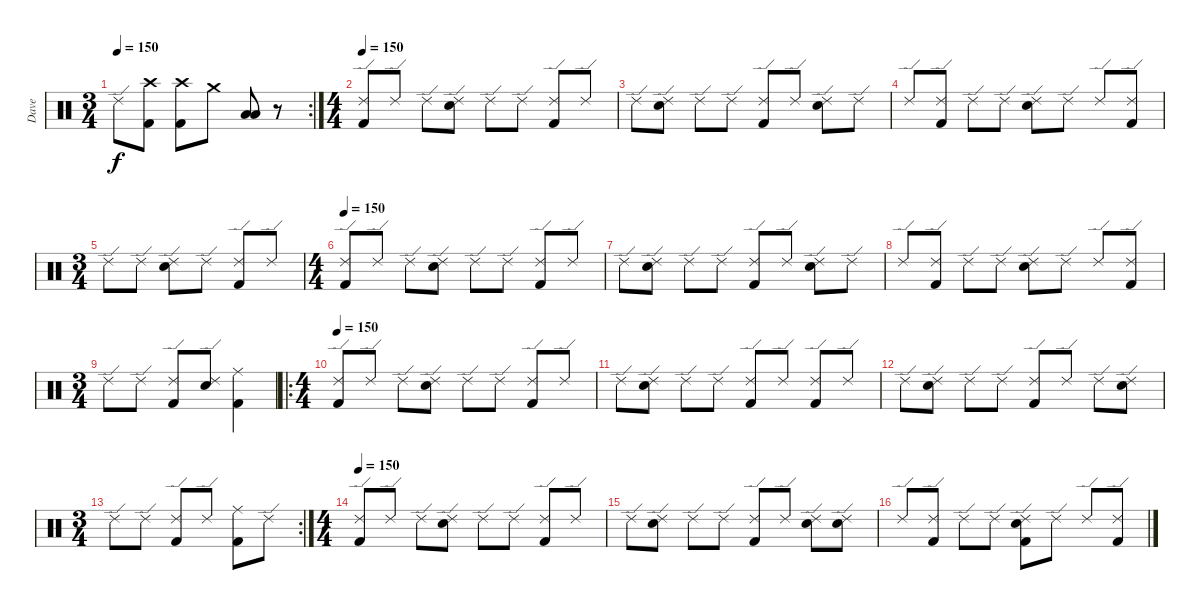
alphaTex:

\track ("Dave" "Dave") {instrument percussion}
\staff {score}
\articulation defaults
\rc 2
\ts (3 4)
\tempo 150
\clef neutral
\ks c "Ride (edge) 2".8{dy f}
("Crash high (hit)" "Kick (hit) 2").8 ("Crash high (hit)" "Kick (hit) 2").8 "Crash medium (hit)".8 ("Low Tom (hit)" "Low Floor Tom (hit)").8 r.8 |
\ts (4 4)
\tempo 150
("Ride (edge) 2" "Kick (hit) 2").8 "Ride (edge) 2".8 "Ride (edge) 2".8 ("Ride (edge) 2" "Electric Snare (hit)").8 "Ride (edge) 2".8 "Ride (edge) 2".8 ("Ride (edge) 2" "Kick (hit) 2").8 "Ride (edge) 2".8 |
"Ride (edge) 2".8 ("Ride (edge) 2" "Electric Snare (hit)").8 "Ride (edge) 2".8 "Ride (edge) 2".8 ("Ride (edge) 2" "Kick (hit) 2").8 "Ride (edge) 2".8 ("Ride (edge) 2" "Electric Snare (hit)").8 "Ride (edge) 2".8 |
"Ride (edge) 2".8 ("Ride (edge) 2" "Kick (hit) 2").8 "Ride (edge) 2".8 "Ride (edge) 2".8 ("Ride (edge) 2" "Electric Snare (hit)").8 "Ride (edge) 2".8 "Ride (edge) 2".8 ("Ride (edge) 2" "Kick (hit) 2").8 |
\ts (3 4)
"Ride (edge) 2".8 "Ride (edge) 2".8 ("Ride (edge) 2" "Electric Snare (hit)").8 "Ride (edge) 2".8 ("Ride (edge) 2" "Kick (hit) 2").8 "Ride (edge) 2".8 |
\ts (4 4)
\tempo 150
("Ride (edge) 2" "Kick (hit) 2").8 "Ride (edge) 2".8 "Ride (edge) 2".8 ("Ride (edge) 2" "Electric Snare (hit)").8 "Ride (edge) 2".8 "Ride (edge) 2".8 ("Ride (edge) 2" "Kick (hit) 2").8 "Ride (edge) 2".8 |
"Ride (edge) 2".8 ("Ride (edge) 2" "Electric Snare (hit)").8 "Ride (edge) 2".8 "Ride (edge) 2".8 ("Ride (edge) 2" "Kick (hit) 2").8 "Ride (edge) 2".8 ("Ride (edge) 2" "Electric Snare (hit)").8 "Ride (edge) 2".8 |
"Ride (edge) 2".8 ("Ride (edge) 2" "Kick (hit) 2").8 "Ride (edge) 2".8 "Ride (edge) 2".8 ("Ride (edge) 2" "Electric Snare (hit)").8 "Ride (edge) 2".8 "Ride (edge) 2".8 ("Ride (edge) 2" "Kick (hit) 2").8 |
\ts (3 4)
"Ride (edge) 2".8 "Ride (edge) 2".8 ("Ride (edge) 2" "Kick (hit) 2").8 ("Ride (edge) 2" "Electric Snare (hit)").8 ("Ride (middle)" "Kick (hit) 2").4 |
\ro
\ts (4 4)
\tempo 150
("Ride (edge) 2" "Kick (hit) 2").8 "Ride (edge) 2".8 "Ride (edge) 2".8 ("Ride (edge) 2" "Electric Snare (hit)").8 "Ride (edge) 2".8 "Ride (edge) 2".8 ("Ride (edge) 2" "Kick (hit) 2").8 "Ride (edge) 2".8 |
"Ride (edge) 2".8 ("Ride (edge) 2" "Electric Snare (hit)").8 "Ride (edge) 2".8 "Ride (edge) 2".8 ("Ride (edge) 2" "Kick (hit) 2").8 "Ride (edge) 2".8 ("Ride (edge) 2" "Kick (hit) 2").8 "Ride (edge) 2".8 |
"Ride (edge) 2".8 ("Ride (edge) 2" "Electric Snare (hit)").8 "Ride (edge) 2".8 "Ride (edge) 2".8 ("Ride (edge) 2" "Kick (hit) 2").8 "Ride (edge) 2".8 "Ride (edge) 2".8 ("Ride (edge) 2" "Electric Snare (hit)").8 |
\rc 2
\ts (3 4)
"Ride (edge) 2".8 "Ride (edge) 2".8 ("Ride (edge) 2" "Kick (hit) 2").8 "Ride (edge) 2".8 ("Ride (middle)" "Kick (hit) 2").8 "Ride (edge) 2".8 |
\ts (4 4)
\tempo 150
("Ride (edge) 2" "Kick (hit) 2").8 "Ride (edge) 2".8 "Ride (edge) 2".8 ("Ride (edge) 2" "Electric Snare (hit)").8 "Ride (edge) 2".8 "Ride (edge) 2".8 ("Ride (edge) 2" "Kick (hit) 2").8 "Ride (edge) 2".8 |
"Ride (edge) 2".8 ("Ride (edge) 2" "Electric Snare (hit)").8 "Ride (edge) 2".8 "Ride (edge) 2".8 ("Ride (edge) 2" "Kick (hit) 2").8 "Ride (edge) 2".8 ("Ride (edge) 2" "Electric Snare (hit)").8 ("Ride (edge) 2" "Electric Snare (hit)").8 |
"Ride (edge) 2".8 ("Ride (edge) 2" "Kick (hit) 2").8 "Ride (edge) 2".8 "Ride (edge) 2".8 ("Ride (edge) 2" "Electric Snare (hit)" "Kick (hit) 2").8 "Ride (edge) 2".8 "Ride (edge) 2".8 ("Ride (edge) 2" "Kick (hit) 2").8
